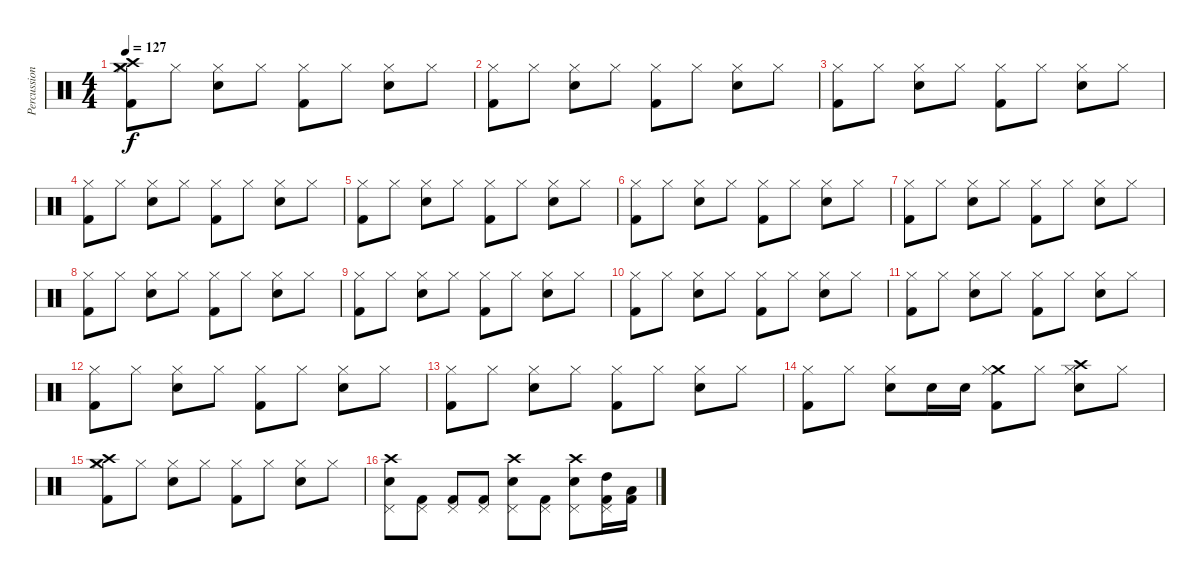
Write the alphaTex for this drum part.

\track ("Percussion" "Percussion") {instrument percussion}
\staff {score}
\articulation defaults
\ts (4 4)
\tempo 127
\clef neutral
\ks c
("Crash medium (hit)" "Crash high (hit)" "Hi-Hat (closed)" "Kick (hit) 2").8{dy f} "Hi-Hat (closed)".8 ("Hi-Hat (closed)" "Snare (hit) 2").8 "Hi-Hat (closed)".8 ("Hi-Hat (closed)" "Kick (hit) 2").8 "Hi-Hat (closed)".8 ("Hi-Hat (closed)" "Snare (hit) 2").8 "Hi-Hat (closed)".8 |
("Hi-Hat (closed)" "Kick (hit) 2").8 "Hi-Hat (closed)".8 ("Hi-Hat (closed)" "Snare (hit) 2").8 "Hi-Hat (closed)".8 ("Hi-Hat (closed)" "Kick (hit) 2").8 "Hi-Hat (closed)".8 ("Hi-Hat (closed)" "Snare (hit) 2").8 "Hi-Hat (closed)".8 |
("Hi-Hat (closed)" "Kick (hit) 2").8 "Hi-Hat (closed)".8 ("Hi-Hat (closed)" "Snare (hit) 2").8 "Hi-Hat (closed)".8 ("Hi-Hat (closed)" "Kick (hit) 2").8 "Hi-Hat (closed)".8 ("Hi-Hat (closed)" "Snare (hit) 2").8 "Hi-Hat (closed)".8 |
("Hi-Hat (closed)" "Kick (hit) 2").8 "Hi-Hat (closed)".8 ("Hi-Hat (closed)" "Snare (hit) 2").8 "Hi-Hat (closed)".8 ("Hi-Hat (closed)" "Kick (hit) 2").8 "Hi-Hat (closed)".8 ("Hi-Hat (closed)" "Snare (hit) 2").8 "Hi-Hat (closed)".8 |
("Hi-Hat (closed)" "Kick (hit) 2").8 "Hi-Hat (closed)".8 ("Hi-Hat (closed)" "Snare (hit) 2").8 "Hi-Hat (closed)".8 ("Hi-Hat (closed)" "Kick (hit) 2").8 "Hi-Hat (closed)".8 ("Hi-Hat (closed)" "Snare (hit) 2").8 "Hi-Hat (closed)".8 |
("Hi-Hat (closed)" "Kick (hit) 2").8 "Hi-Hat (closed)".8 ("Hi-Hat (closed)" "Snare (hit) 2").8 "Hi-Hat (closed)".8 ("Hi-Hat (closed)" "Kick (hit) 2").8 "Hi-Hat (closed)".8 ("Hi-Hat (closed)" "Snare (hit) 2").8 "Hi-Hat (closed)".8 |
("Hi-Hat (closed)" "Kick (hit) 2").8 "Hi-Hat (closed)".8 ("Hi-Hat (closed)" "Snare (hit) 2").8 "Hi-Hat (closed)".8 ("Hi-Hat (closed)" "Kick (hit) 2").8 "Hi-Hat (closed)".8 ("Hi-Hat (closed)" "Snare (hit) 2").8 "Hi-Hat (closed)".8 |
("Hi-Hat (closed)" "Kick (hit) 2").8 "Hi-Hat (closed)".8 ("Hi-Hat (closed)" "Snare (hit) 2").8 "Hi-Hat (closed)".8 ("Hi-Hat (closed)" "Kick (hit) 2").8 "Hi-Hat (closed)".8 ("Hi-Hat (closed)" "Snare (hit) 2").8 "Hi-Hat (closed)".8 |
("Hi-Hat (closed)" "Kick (hit) 2").8 "Hi-Hat (closed)".8 ("Hi-Hat (closed)" "Snare (hit) 2").8 "Hi-Hat (closed)".8 ("Hi-Hat (closed)" "Kick (hit) 2").8 "Hi-Hat (closed)".8 ("Hi-Hat (closed)" "Snare (hit) 2").8 "Hi-Hat (closed)".8 |
("Hi-Hat (closed)" "Kick (hit) 2").8 "Hi-Hat (closed)".8 ("Hi-Hat (closed)" "Snare (hit) 2").8 "Hi-Hat (closed)".8 ("Hi-Hat (closed)" "Kick (hit) 2").8 "Hi-Hat (closed)".8 ("Hi-Hat (closed)" "Snare (hit) 2").8 "Hi-Hat (closed)".8 |
("Hi-Hat (closed)" "Kick (hit) 2").8 "Hi-Hat (closed)".8 ("Hi-Hat (closed)" "Snare (hit) 2").8 "Hi-Hat (closed)".8 ("Hi-Hat (closed)" "Kick (hit) 2").8 "Hi-Hat (closed)".8 ("Hi-Hat (closed)" "Snare (hit) 2").8 "Hi-Hat (closed)".8 |
("Hi-Hat (closed)" "Kick (hit) 2").8 "Hi-Hat (closed)".8 ("Hi-Hat (closed)" "Snare (hit) 2").8 "Hi-Hat (closed)".8 ("Hi-Hat (closed)" "Kick (hit) 2").8 "Hi-Hat (closed)".8 ("Hi-Hat (closed)" "Snare (hit) 2").8 "Hi-Hat (closed)".8 |
("Hi-Hat (closed)" "Kick (hit) 2").8 "Hi-Hat (closed)".8 ("Hi-Hat (closed)" "Snare (hit) 2").8 "Hi-Hat (closed)".8 ("Hi-Hat (closed)" "Kick (hit) 2").8 "Hi-Hat (closed)".8 ("Hi-Hat (closed)" "Snare (hit) 2").8 "Hi-Hat (closed)".8 |
("Hi-Hat (closed)" "Kick (hit) 2").8 "Hi-Hat (closed)".8 ("Hi-Hat (closed)" "Snare (hit) 2").8 "Snare (hit) 2".16 "Snare (hit) 2".16 ("Crash medium (hit)" "Hi-Hat (closed)" "Kick (hit) 2").8 "Hi-Hat (closed)".8 ("Crash high (hit)" "Hi-Hat (closed)" "Snare (hit) 2").8 "Hi-Hat (closed)".8 |
("Crash high (hit)" "Crash medium (hit)" "Hi-Hat (closed)" "Kick (hit) 2").8 "Hi-Hat (closed)".8 ("Hi-Hat (closed)" "Snare (hit) 2").8 "Hi-Hat (closed)".8 ("Hi-Hat (closed)" "Kick (hit) 2").8 "Hi-Hat (closed)".8 ("Hi-Hat (closed)" "Snare (hit) 2").8 "Hi-Hat (closed)".8 |
("Crash high (hit)" "Pedal Hi-Hat (hit)" "Snare (hit) 2").8 ("Pedal Hi-Hat (hit)" "Kick (hit) 2").8 ("Pedal Hi-Hat (hit)" "Kick (hit) 2").8 ("Pedal Hi-Hat (hit)" "Kick (hit) 2").8 ("Crash high (hit)" "Pedal Hi-Hat (hit)" "Snare (hit) 2").8 ("Pedal Hi-Hat (hit)" "Kick (hit) 2").8 ("Crash high (hit)" "Pedal Hi-Hat (hit)" "Snare (hit) 2").8 ("Pedal Hi-Hat (hit)" "High Tom (hit)" "Kick (hit) 2").16 ("Low Tom (hit)" "Kick (hit) 2").16
